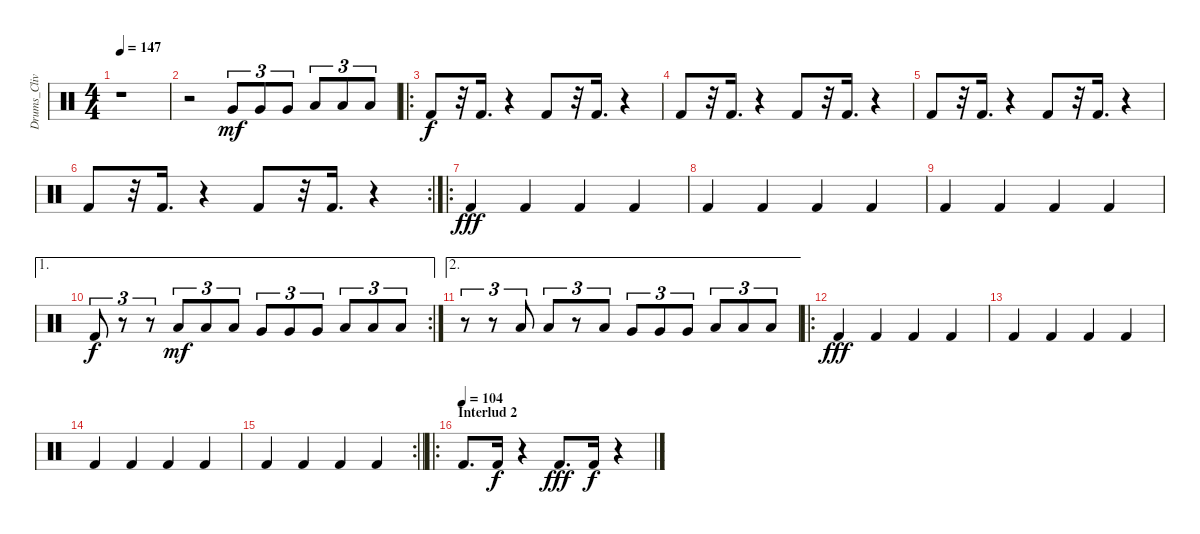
\track ("Drums_CliveBurr" "Drums_Cliv") {instrument percussion}
\staff {score}
\articulation defaults
\ts (4 4)
\tempo 147
\clef neutral
\ks c
r.1{dy f} |
r.2 "Very Low Tom (hit)".8{tu (3 2) dy mf} "Very Low Tom (hit)".8{tu (3 2)} "Very Low Tom (hit)".8{tu (3 2)} "Low Floor Tom (hit)".8{tu (3 2)} "Low Floor Tom (hit)".8{tu (3 2)} "Low Floor Tom (hit)".8{tu (3 2)} |
\ro "Kick (hit) 2".8{dy f}
r.32 "Kick (hit) 2".16{d} r.4 "Kick (hit) 2".8 r.32 "Kick (hit) 2".16{d} r.4 |
"Kick (hit) 2".8 r.32 "Kick (hit) 2".16{d} r.4 "Kick (hit) 2".8 r.32 "Kick (hit) 2".16{d} r.4 |
"Kick (hit) 2".8 r.32 "Kick (hit) 2".16{d} r.4 "Kick (hit) 2".8 r.32 "Kick (hit) 2".16{d} r.4 |
\rc 2 "Kick (hit) 2".8
r.32 "Kick (hit) 2".16{d} r.4 "Kick (hit) 2".8 r.32 "Kick (hit) 2".16{d} r.4 |
\ro "Kick (hit) 2".4{dy fff} "Kick (hit) 2".4 "Kick (hit) 2".4 "Kick (hit) 2".4
|
"Kick (hit) 2".4 "Kick (hit) 2".4 "Kick (hit) 2".4 "Kick (hit) 2".4 |
"Kick (hit) 2".4 "Kick (hit) 2".4 "Kick (hit) 2".4 "Kick (hit) 2".4 |
\ae 1
\rc 2 "Kick (hit) 2".8{tu (3 2) dy f}
r.8{tu (3 2)} r.8{tu (3 2)} "Low Tom (hit)".8{tu (3 2) dy mf} "Low Tom (hit)".8{tu (3 2)} "Low Tom (hit)".8{tu (3 2)} "Very Low Tom (hit)".8{tu (3 2)} "Very Low Tom (hit)".8{tu (3 2)} "Very Low Tom (hit)".8{tu (3 2)} "Low Floor Tom (hit)".8{tu (3 2)} "Low Floor Tom (hit)".8{tu (3 2)} "Low Floor Tom (hit)".8{tu (3 2)} |
\ae 2
r.8{tu (3 2)} r.8{tu (3 2)} "Low Tom (hit)".8{tu (3 2)} "Low Tom (hit)".8{tu (3 2)} r.8{tu (3 2)} "Low Tom (hit)".8{tu (3 2)} "Very Low Tom (hit)".8{tu (3 2)} "Very Low Tom (hit)".8{tu (3 2)} "Very Low Tom (hit)".8{tu (3 2)} "Low Floor Tom (hit)".8{tu (3 2)} "Low Floor Tom (hit)".8{tu (3 2)} "Low Floor Tom (hit)".8{tu (3 2)} |
\ro "Kick (hit) 2".4{dy fff} "Kick (hit) 2".4 "Kick (hit) 2".4 "Kick (hit) 2".4
|
"Kick (hit) 2".4 "Kick (hit) 2".4 "Kick (hit) 2".4 "Kick (hit) 2".4 |
"Kick (hit) 2".4 "Kick (hit) 2".4 "Kick (hit) 2".4 "Kick (hit) 2".4 |
\rc 2
\barLineRight lightlight "Kick (hit) 2".4 "Kick (hit) 2".4 "Kick (hit) 2".4 "Kick (hit) 2".4
|
\ro
\section ("" "Interlud 2")
\tempo (104)
"Kick (hit) 2".8{d} "Kick (hit) 2".16{dy f} r.4 "Kick (hit) 2".8{d dy fff} "Kick (hit) 2".16{dy f} r.4
